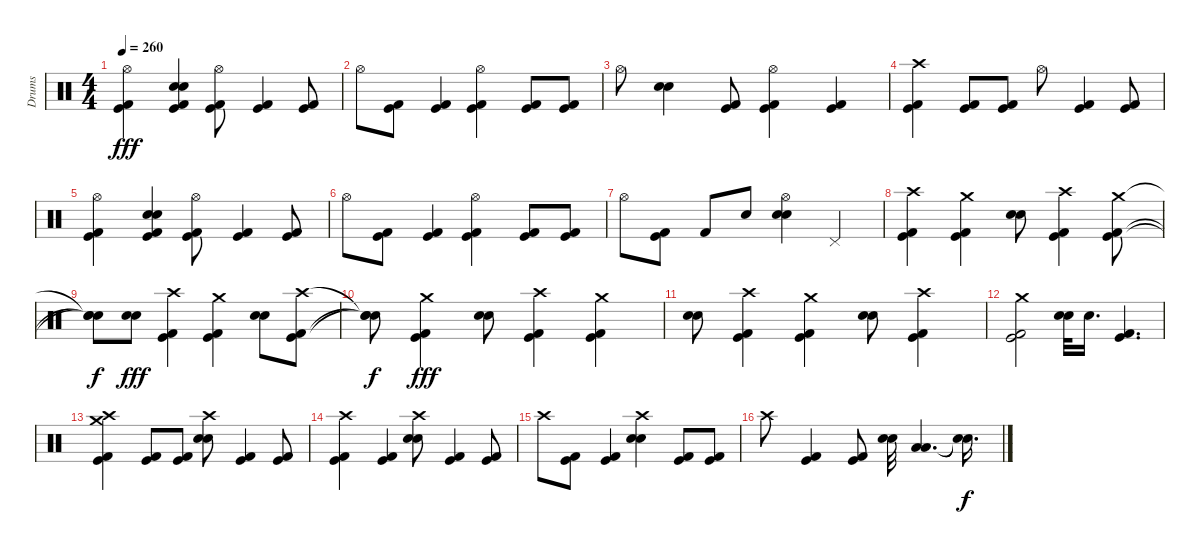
\track ("Drums" "Drums") {instrument percussion}
\staff {score}
\articulation defaults
\ts (4 4)
\tempo 260
\clef neutral
\ks c
("Kick (hit)" "Kick (hit) 2" "Hi-Hat (open)").4{dy fff} ("Kick (hit)" "Kick (hit) 2" "Electric Snare (hit)" "Electric Snare (hit)").4 ("Kick (hit)" "Kick (hit) 2" "Hi-Hat (open)").8 ("Kick (hit)" "Kick (hit) 2").4 ("Kick (hit)" "Kick (hit) 2").8 |
"Hi-Hat (open)".8 ("Kick (hit)" "Kick (hit) 2").8 ("Kick (hit)" "Kick (hit) 2").4 ("Kick (hit)" "Kick (hit) 2" "Hi-Hat (open)").4 ("Kick (hit)" "Kick (hit) 2").8 ("Kick (hit)" "Kick (hit) 2").8 |
"Hi-Hat (open)".8 ("Electric Snare (hit)" "Electric Snare (hit)").4 ("Kick (hit)" "Kick (hit) 2").8 ("Kick (hit)" "Kick (hit) 2" "Hi-Hat (open)").4 ("Kick (hit)" "Kick (hit) 2").4 |
("Kick (hit)" "Kick (hit) 2" "Crash high (hit)").4 ("Kick (hit)" "Kick (hit) 2").8 ("Kick (hit)" "Kick (hit) 2").8 "Hi-Hat (open)".8 ("Kick (hit)" "Kick (hit) 2").4 ("Kick (hit)" "Kick (hit) 2").8 |
("Kick (hit)" "Kick (hit) 2" "Hi-Hat (open)").4 ("Kick (hit)" "Kick (hit) 2" "Electric Snare (hit)" "Electric Snare (hit)").4 ("Kick (hit)" "Kick (hit) 2" "Hi-Hat (open)").8 ("Kick (hit)" "Kick (hit) 2").4 ("Kick (hit)" "Kick (hit) 2").8 |
"Hi-Hat (open)".8 ("Kick (hit)" "Kick (hit) 2").8 ("Kick (hit)" "Kick (hit) 2").4 ("Kick (hit)" "Kick (hit) 2" "Hi-Hat (open)").4 ("Kick (hit)" "Kick (hit) 2").8 ("Kick (hit)" "Kick (hit) 2").8 |
"Hi-Hat (open)".8 ("Kick (hit)" "Kick (hit) 2").8 "Kick (hit) 2".8 "Electric Snare (hit)".8 ("Electric Snare (hit)" "Electric Snare (hit)" "Hi-Hat (open)").4 "Pedal Hi-Hat (hit)".4 |
("Kick (hit)" "Kick (hit) 2" "Crash high (hit)").4 ("Kick (hit)" "Kick (hit) 2" "Crash medium (hit)").4 ("Electric Snare (hit)" "Electric Snare (hit)").8 ("Kick (hit)" "Kick (hit) 2" "Crash high (hit)").4 ("Kick (hit)" "Kick (hit) 2" "Crash medium (hit)").8 |
("Snare (hit)"{t} "Snare (hit)"{t} "Snare (hit)"{t}).8{dy f} ("Electric Snare (hit)" "Electric Snare (hit)").8{dy fff} ("Kick (hit)" "Kick (hit) 2" "Crash high (hit)").4 ("Kick (hit)" "Kick (hit) 2" "Crash medium (hit)").4 ("Electric Snare (hit)" "Electric Snare (hit)").8 ("Kick (hit)" "Kick (hit) 2" "Crash high (hit)").8 |
("Snare (hit)"{t} "Snare (hit)"{t} "Snare (hit)"{t}).8{dy f} ("Kick (hit)" "Kick (hit) 2" "Crash medium (hit)").4{dy fff} ("Electric Snare (hit)" "Electric Snare (hit)").8 ("Kick (hit)" "Kick (hit) 2" "Crash high (hit)").4 ("Kick (hit)" "Kick (hit) 2" "Crash medium (hit)").4 |
("Electric Snare (hit)" "Electric Snare (hit)").8 ("Kick (hit)" "Kick (hit) 2" "Crash high (hit)").4 ("Kick (hit)" "Kick (hit) 2" "Crash medium (hit)").4 ("Electric Snare (hit)" "Electric Snare (hit)").8 ("Kick (hit)" "Kick (hit) 2" "Crash high (hit)").4 |
("Kick (hit)" "Kick (hit) 2" "Crash medium (hit)").2 ("Electric Snare (hit)" "Electric Snare (hit)").32 "Electric Snare (hit)".16{d} ("Kick (hit)" "Kick (hit) 2").4{d} |
("Kick (hit)" "Kick (hit) 2" "Crash medium (hit)" "Crash high (hit)").4 ("Kick (hit)" "Kick (hit) 2").8 ("Kick (hit)" "Kick (hit) 2").8 ("Electric Snare (hit)" "Electric Snare (hit)" "Crash high (hit)").8 ("Kick (hit)" "Kick (hit) 2").4 ("Kick (hit)" "Kick (hit) 2").8 |
("Kick (hit)" "Kick (hit) 2" "Crash high (hit)").4 ("Kick (hit)" "Kick (hit) 2").4 ("Electric Snare (hit)" "Electric Snare (hit)" "Crash high (hit)").8 ("Kick (hit)" "Kick (hit) 2").4 ("Kick (hit)" "Kick (hit) 2").8 |
"Crash high (hit)".8 ("Kick (hit)" "Kick (hit) 2").8 ("Kick (hit)" "Kick (hit) 2").4 ("Electric Snare (hit)" "Electric Snare (hit)" "Crash high (hit)").4 ("Kick (hit)" "Kick (hit) 2").8 ("Kick (hit)" "Kick (hit) 2").8 |
"Crash high (hit)".8 ("Kick (hit)" "Kick (hit) 2").4 ("Kick (hit)" "Kick (hit) 2").8 ("Electric Snare (hit)" "Electric Snare (hit)").32 ("Low Floor Tom (hit)" "Low Floor Tom (hit)").4{d} ("Snare (hit)"{t} "Snare (hit)"{t}).16{d dy f}
